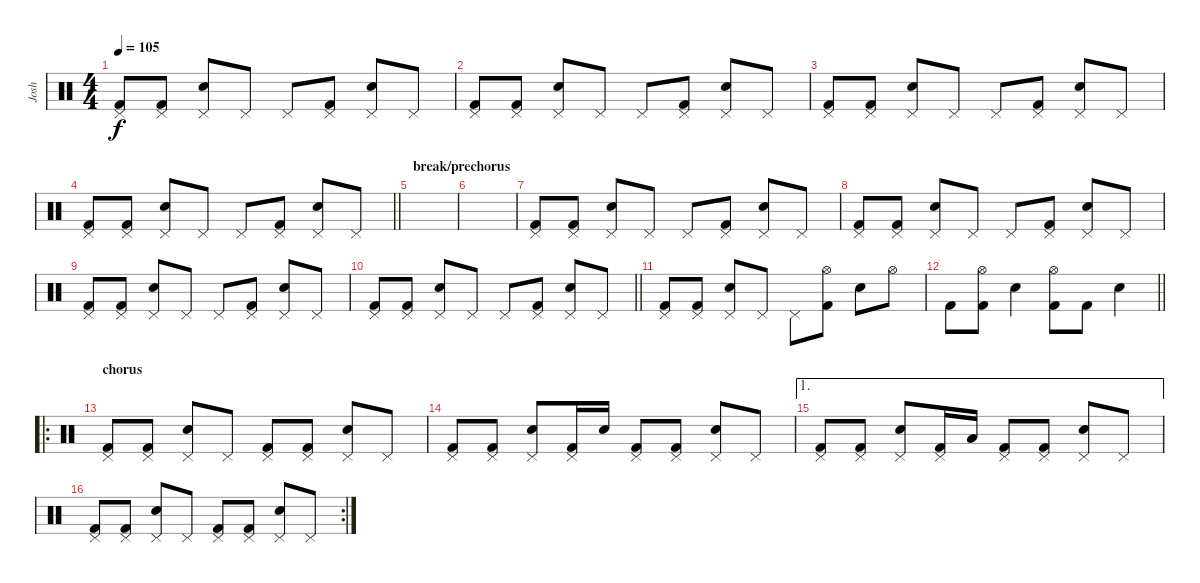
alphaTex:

\track ("Josh" "Josh") {instrument percussion}
\staff {score}
\articulation defaults
\ts (4 4)
\tempo 105
\clef neutral
\ks c
("Pedal Hi-Hat (hit)" "Kick (hit) 2").8{dy f} ("Pedal Hi-Hat (hit)" "Kick (hit) 2").8 ("Pedal Hi-Hat (hit)" "Electric Snare (hit)").8 "Pedal Hi-Hat (hit)".8 "Pedal Hi-Hat (hit)".8 ("Pedal Hi-Hat (hit)" "Kick (hit) 2").8 ("Pedal Hi-Hat (hit)" "Electric Snare (hit)").8 "Pedal Hi-Hat (hit)".8 |
("Pedal Hi-Hat (hit)" "Kick (hit) 2").8 ("Pedal Hi-Hat (hit)" "Kick (hit) 2").8 ("Pedal Hi-Hat (hit)" "Electric Snare (hit)").8 "Pedal Hi-Hat (hit)".8 "Pedal Hi-Hat (hit)".8 ("Pedal Hi-Hat (hit)" "Kick (hit) 2").8 ("Pedal Hi-Hat (hit)" "Electric Snare (hit)").8 "Pedal Hi-Hat (hit)".8 |
("Pedal Hi-Hat (hit)" "Kick (hit) 2").8 ("Pedal Hi-Hat (hit)" "Kick (hit) 2").8 ("Pedal Hi-Hat (hit)" "Electric Snare (hit)").8 "Pedal Hi-Hat (hit)".8 "Pedal Hi-Hat (hit)".8 ("Pedal Hi-Hat (hit)" "Kick (hit) 2").8 ("Pedal Hi-Hat (hit)" "Electric Snare (hit)").8 "Pedal Hi-Hat (hit)".8 |
\barLineRight lightlight
("Pedal Hi-Hat (hit)" "Kick (hit) 2").8 ("Pedal Hi-Hat (hit)" "Kick (hit) 2").8 ("Pedal Hi-Hat (hit)" "Electric Snare (hit)").8 "Pedal Hi-Hat (hit)".8 "Pedal Hi-Hat (hit)".8 ("Pedal Hi-Hat (hit)" "Kick (hit) 2").8 ("Pedal Hi-Hat (hit)" "Electric Snare (hit)").8 "Pedal Hi-Hat (hit)".8 |
\section ("" "break/prechorus")
|
|
("Pedal Hi-Hat (hit)" "Kick (hit) 2").8 ("Pedal Hi-Hat (hit)" "Kick (hit) 2").8 ("Pedal Hi-Hat (hit)" "Electric Snare (hit)").8 "Pedal Hi-Hat (hit)".8 "Pedal Hi-Hat (hit)".8 ("Pedal Hi-Hat (hit)" "Kick (hit) 2").8 ("Pedal Hi-Hat (hit)" "Electric Snare (hit)").8 "Pedal Hi-Hat (hit)".8 |
("Pedal Hi-Hat (hit)" "Kick (hit) 2").8 ("Pedal Hi-Hat (hit)" "Kick (hit) 2").8 ("Pedal Hi-Hat (hit)" "Electric Snare (hit)").8 "Pedal Hi-Hat (hit)".8 "Pedal Hi-Hat (hit)".8 ("Pedal Hi-Hat (hit)" "Kick (hit) 2").8 ("Pedal Hi-Hat (hit)" "Electric Snare (hit)").8 "Pedal Hi-Hat (hit)".8 |
("Pedal Hi-Hat (hit)" "Kick (hit) 2").8 ("Pedal Hi-Hat (hit)" "Kick (hit) 2").8 ("Pedal Hi-Hat (hit)" "Electric Snare (hit)").8 "Pedal Hi-Hat (hit)".8 "Pedal Hi-Hat (hit)".8 ("Pedal Hi-Hat (hit)" "Kick (hit) 2").8 ("Pedal Hi-Hat (hit)" "Electric Snare (hit)").8 "Pedal Hi-Hat (hit)".8 |
\barLineRight lightlight
("Pedal Hi-Hat (hit)" "Kick (hit) 2").8 ("Pedal Hi-Hat (hit)" "Kick (hit) 2").8 ("Pedal Hi-Hat (hit)" "Electric Snare (hit)").8 "Pedal Hi-Hat (hit)".8 "Pedal Hi-Hat (hit)".8 ("Pedal Hi-Hat (hit)" "Kick (hit) 2").8 ("Pedal Hi-Hat (hit)" "Electric Snare (hit)").8 "Pedal Hi-Hat (hit)".8 |
("Pedal Hi-Hat (hit)" "Kick (hit) 2").8 ("Pedal Hi-Hat (hit)" "Kick (hit) 2").8 ("Pedal Hi-Hat (hit)" "Electric Snare (hit)").8 "Pedal Hi-Hat (hit)".8 "Pedal Hi-Hat (hit)".8 ("Hi-Hat (open)" "Kick (hit) 2").8 "Electric Snare (hit)".8 "Hi-Hat (open)".8 |
\barLineRight lightlight "Kick (hit) 2".8
("Hi-Hat (open)" "Kick (hit) 2").8 "Electric Snare (hit)".4 ("Hi-Hat (open)" "Kick (hit) 2").8 "Kick (hit) 2".8 "Electric Snare (hit)".4 |
\ro
\section ("" "chorus")
("Pedal Hi-Hat (hit)" "Kick (hit) 2").8 ("Pedal Hi-Hat (hit)" "Kick (hit) 2").8 ("Pedal Hi-Hat (hit)" "Electric Snare (hit)").8 "Pedal Hi-Hat (hit)".8 ("Pedal Hi-Hat (hit)" "Kick (hit) 2").8 ("Pedal Hi-Hat (hit)" "Kick (hit) 2").8 ("Pedal Hi-Hat (hit)" "Electric Snare (hit)").8 "Pedal Hi-Hat (hit)".8 |
("Pedal Hi-Hat (hit)" "Kick (hit) 2").8 ("Pedal Hi-Hat (hit)" "Kick (hit) 2").8 ("Pedal Hi-Hat (hit)" "Electric Snare (hit)").8 ("Pedal Hi-Hat (hit)" "Kick (hit) 2").16 "Electric Snare (hit)".16 ("Pedal Hi-Hat (hit)" "Kick (hit) 2").8 ("Pedal Hi-Hat (hit)" "Kick (hit) 2").8 ("Pedal Hi-Hat (hit)" "Electric Snare (hit)").8 "Pedal Hi-Hat (hit)".8 |
\ae 1
("Pedal Hi-Hat (hit)" "Kick (hit) 2").8 ("Pedal Hi-Hat (hit)" "Kick (hit) 2").8 ("Pedal Hi-Hat (hit)" "Electric Snare (hit)").8 ("Pedal Hi-Hat (hit)" "Kick (hit) 2").16 "Low Tom (hit)".16 ("Pedal Hi-Hat (hit)" "Kick (hit) 2").8 ("Pedal Hi-Hat (hit)" "Kick (hit) 2").8 ("Pedal Hi-Hat (hit)" "Electric Snare (hit)").8 "Pedal Hi-Hat (hit)".8 |
\rc 2
("Pedal Hi-Hat (hit)" "Kick (hit) 2").8 ("Pedal Hi-Hat (hit)" "Kick (hit) 2").8 ("Pedal Hi-Hat (hit)" "Electric Snare (hit)").8 "Pedal Hi-Hat (hit)".8 ("Pedal Hi-Hat (hit)" "Kick (hit) 2").8 ("Pedal Hi-Hat (hit)" "Kick (hit) 2").8 ("Pedal Hi-Hat (hit)" "Electric Snare (hit)").8 "Pedal Hi-Hat (hit)".8
